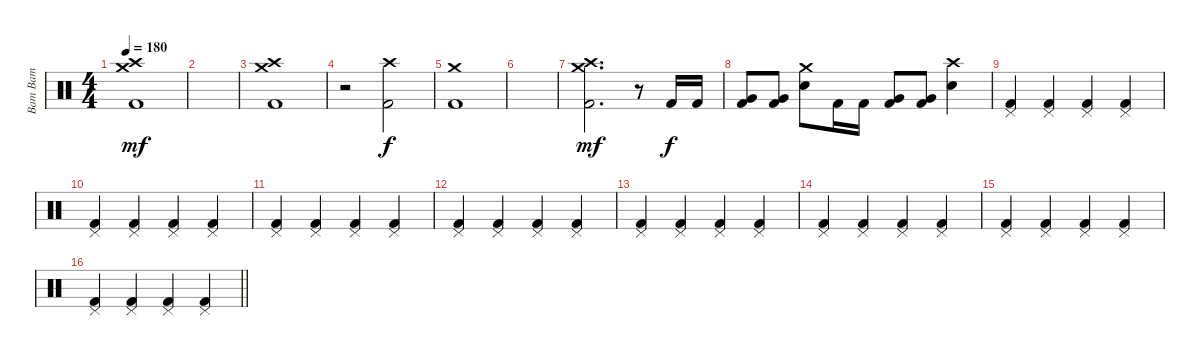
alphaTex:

\track ("Bam Bam" "Bam Bam") {instrument percussion}
\staff {score}
\articulation defaults
\ts (4 4)
\tempo 180
\clef neutral
\ks c
("Crash medium (hit)" "Crash high (hit)" "Kick (hit) 2").1{dy mf} |
|
("Crash medium (hit)" "Crash high (hit)" "Kick (hit) 2").1 |
r.2 ("Crash high (hit)" "Kick (hit) 2").2{dy f} |
("Crash medium (hit)" "Kick (hit) 2").1 |
|
("Crash medium (hit)" "Crash high (hit)" "Kick (hit) 2").2{d dy mf} r.8 "Kick (hit) 2".16{dy f} "Kick (hit) 2".16 |
("Very Low Tom (hit)" "Kick (hit) 2").8 ("Very Low Tom (hit)" "Kick (hit) 2").8 ("Crash medium (hit)" "Electric Snare (hit)").8 "Kick (hit) 2".16 "Kick (hit) 2".16 ("Very Low Tom (hit)" "Kick (hit) 2").8 ("Very Low Tom (hit)" "Kick (hit) 2").8 ("Crash high (hit)" "Electric Snare (hit)").4 |
("Pedal Hi-Hat (hit)" "Kick (hit) 2").4 ("Pedal Hi-Hat (hit)" "Kick (hit) 2").4 ("Pedal Hi-Hat (hit)" "Kick (hit) 2").4 ("Pedal Hi-Hat (hit)" "Kick (hit) 2").4 |
("Pedal Hi-Hat (hit)" "Kick (hit) 2").4 ("Pedal Hi-Hat (hit)" "Kick (hit) 2").4 ("Pedal Hi-Hat (hit)" "Kick (hit) 2").4 ("Pedal Hi-Hat (hit)" "Kick (hit) 2").4 |
("Pedal Hi-Hat (hit)" "Kick (hit) 2").4 ("Pedal Hi-Hat (hit)" "Kick (hit) 2").4 ("Pedal Hi-Hat (hit)" "Kick (hit) 2").4 ("Pedal Hi-Hat (hit)" "Kick (hit) 2").4 |
("Pedal Hi-Hat (hit)" "Kick (hit) 2").4 ("Pedal Hi-Hat (hit)" "Kick (hit) 2").4 ("Pedal Hi-Hat (hit)" "Kick (hit) 2").4 ("Pedal Hi-Hat (hit)" "Kick (hit) 2").4 |
("Pedal Hi-Hat (hit)" "Kick (hit) 2").4 ("Pedal Hi-Hat (hit)" "Kick (hit) 2").4 ("Pedal Hi-Hat (hit)" "Kick (hit) 2").4 ("Pedal Hi-Hat (hit)" "Kick (hit) 2").4 |
("Pedal Hi-Hat (hit)" "Kick (hit) 2").4 ("Pedal Hi-Hat (hit)" "Kick (hit) 2").4 ("Pedal Hi-Hat (hit)" "Kick (hit) 2").4 ("Pedal Hi-Hat (hit)" "Kick (hit) 2").4 |
("Pedal Hi-Hat (hit)" "Kick (hit) 2").4 ("Pedal Hi-Hat (hit)" "Kick (hit) 2").4 ("Pedal Hi-Hat (hit)" "Kick (hit) 2").4 ("Pedal Hi-Hat (hit)" "Kick (hit) 2").4 |
\barLineRight lightlight
("Pedal Hi-Hat (hit)" "Kick (hit) 2").4 ("Pedal Hi-Hat (hit)" "Kick (hit) 2").4 ("Pedal Hi-Hat (hit)" "Kick (hit) 2").4 ("Pedal Hi-Hat (hit)" "Kick (hit) 2").4
